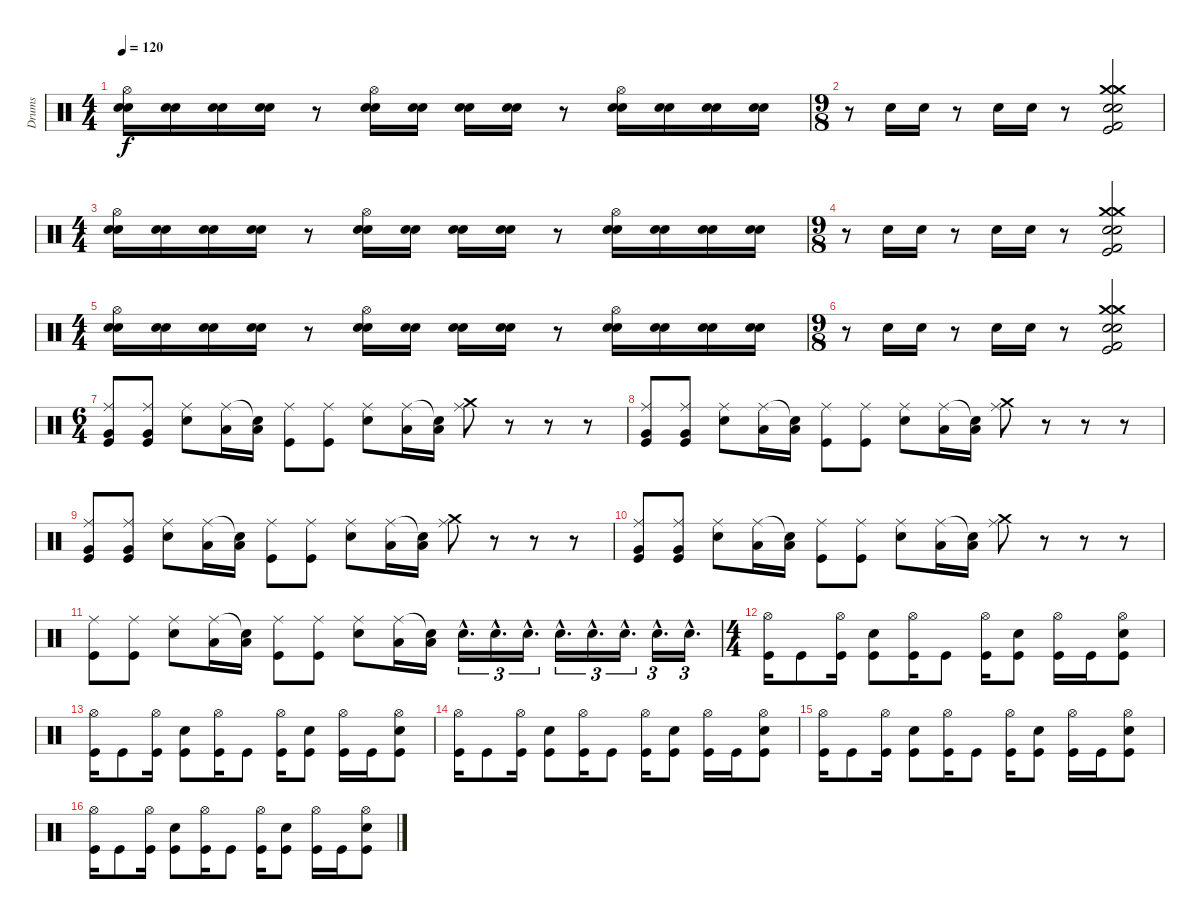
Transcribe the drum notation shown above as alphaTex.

\track ("Drums" "Drums") {instrument percussion}
\staff {score}
\articulation defaults
\ts (4 4)
\tempo 120
\clef neutral
\ks c
("Hi-Hat (open)" "Snare (hit) 2" "Electric Snare (hit)").16{dy f} ("Snare (hit) 2" "Electric Snare (hit)").16 ("Snare (hit) 2" "Electric Snare (hit)").16 ("Snare (hit) 2" "Electric Snare (hit)").16 r.8 ("Hi-Hat (open)" "Snare (hit) 2" "Electric Snare (hit)").16 ("Snare (hit) 2" "Electric Snare (hit)").16 ("Snare (hit) 2" "Electric Snare (hit)").16 ("Snare (hit) 2" "Electric Snare (hit)").16 r.8 ("Hi-Hat (open)" "Snare (hit) 2" "Electric Snare (hit)").16 ("Snare (hit) 2" "Electric Snare (hit)").16 ("Snare (hit) 2" "Electric Snare (hit)").16 ("Snare (hit) 2" "Electric Snare (hit)").16 |
\ts (9 8)
r.8 "Electric Snare (hit)".16 "Electric Snare (hit)".16 r.8 "Electric Snare (hit)".16 "Electric Snare (hit)".16 r.8 ("Crash medium (hit)" "Crash medium (hit)" "Kick (hit) 2" "Kick (hit)" "Snare (hit) 2" "Electric Snare (hit)").2 |
\ts (4 4)
("Hi-Hat (open)" "Snare (hit) 2" "Electric Snare (hit)").16 ("Snare (hit) 2" "Electric Snare (hit)").16 ("Snare (hit) 2" "Electric Snare (hit)").16 ("Snare (hit) 2" "Electric Snare (hit)").16 r.8 ("Hi-Hat (open)" "Snare (hit) 2" "Electric Snare (hit)").16 ("Snare (hit) 2" "Electric Snare (hit)").16 ("Snare (hit) 2" "Electric Snare (hit)").16 ("Snare (hit) 2" "Electric Snare (hit)").16 r.8 ("Hi-Hat (open)" "Snare (hit) 2" "Electric Snare (hit)").16 ("Snare (hit) 2" "Electric Snare (hit)").16 ("Snare (hit) 2" "Electric Snare (hit)").16 ("Snare (hit) 2" "Electric Snare (hit)").16 |
\ts (9 8)
r.8 "Electric Snare (hit)".16 "Electric Snare (hit)".16 r.8 "Electric Snare (hit)".16 "Electric Snare (hit)".16 r.8 ("Crash medium (hit)" "Crash medium (hit)" "Kick (hit) 2" "Kick (hit)" "Snare (hit) 2" "Electric Snare (hit)").2 |
\ts (4 4)
("Hi-Hat (open)" "Snare (hit) 2" "Electric Snare (hit)").16 ("Snare (hit) 2" "Electric Snare (hit)").16 ("Snare (hit) 2" "Electric Snare (hit)").16 ("Snare (hit) 2" "Electric Snare (hit)").16 r.8 ("Hi-Hat (open)" "Snare (hit) 2" "Electric Snare (hit)").16 ("Snare (hit) 2" "Electric Snare (hit)").16 ("Snare (hit) 2" "Electric Snare (hit)").16 ("Snare (hit) 2" "Electric Snare (hit)").16 r.8 ("Hi-Hat (open)" "Snare (hit) 2" "Electric Snare (hit)").16 ("Snare (hit) 2" "Electric Snare (hit)").16 ("Snare (hit) 2" "Electric Snare (hit)").16 ("Snare (hit) 2" "Electric Snare (hit)").16 |
\ts (9 8)
r.8 "Electric Snare (hit)".16 "Electric Snare (hit)".16 r.8 "Electric Snare (hit)".16 "Electric Snare (hit)".16 r.8 ("Crash medium (hit)" "Crash medium (hit)" "Kick (hit) 2" "Kick (hit)" "Snare (hit) 2" "Electric Snare (hit)").2 |
\ts (6 4)
("Ride (middle)" "Very Low Tom (hit)" "Kick (hit)").8 ("Ride (middle)" "Very Low Tom (hit)" "Kick (hit)").8 ("Ride (middle)" "Electric Snare (hit)").8 ("Ride (middle)" "Low Floor Tom (hit)").16 ("Snare (hit)"{t} "Low Floor Tom (hit)").16 ("Ride (middle)" "Kick (hit)").8 ("Ride (middle)" "Kick (hit)").8 ("Ride (middle)" "Electric Snare (hit)").8 ("Ride (middle)" "Low Floor Tom (hit)").16 ("Snare (hit)"{t} "Low Floor Tom (hit)").16 ("Ride (middle)" "Crash medium (hit)").8 r.8 r.8 r.8 |
("Ride (middle)" "Very Low Tom (hit)" "Kick (hit)").8 ("Ride (middle)" "Very Low Tom (hit)" "Kick (hit)").8 ("Ride (middle)" "Electric Snare (hit)").8 ("Ride (middle)" "Low Floor Tom (hit)").16 ("Snare (hit)"{t} "Low Floor Tom (hit)").16 ("Ride (middle)" "Kick (hit)").8 ("Ride (middle)" "Kick (hit)").8 ("Ride (middle)" "Electric Snare (hit)").8 ("Ride (middle)" "Low Floor Tom (hit)").16 ("Snare (hit)"{t} "Low Floor Tom (hit)").16 ("Ride (middle)" "Crash medium (hit)").8 r.8 r.8 r.8 |
("Ride (middle)" "Very Low Tom (hit)" "Kick (hit)").8 ("Ride (middle)" "Very Low Tom (hit)" "Kick (hit)").8 ("Ride (middle)" "Electric Snare (hit)").8 ("Ride (middle)" "Low Floor Tom (hit)").16 ("Snare (hit)"{t} "Low Floor Tom (hit)").16 ("Ride (middle)" "Kick (hit)").8 ("Ride (middle)" "Kick (hit)").8 ("Ride (middle)" "Electric Snare (hit)").8 ("Ride (middle)" "Low Floor Tom (hit)").16 ("Snare (hit)"{t} "Low Floor Tom (hit)").16 ("Ride (middle)" "Crash medium (hit)").8 r.8 r.8 r.8 |
("Ride (middle)" "Very Low Tom (hit)" "Kick (hit)").8 ("Ride (middle)" "Very Low Tom (hit)" "Kick (hit)").8 ("Ride (middle)" "Electric Snare (hit)").8 ("Ride (middle)" "Low Floor Tom (hit)").16 ("Snare (hit)"{t} "Low Floor Tom (hit)").16 ("Ride (middle)" "Kick (hit)").8 ("Ride (middle)" "Kick (hit)").8 ("Ride (middle)" "Electric Snare (hit)").8 ("Ride (middle)" "Low Floor Tom (hit)").16 ("Snare (hit)"{t} "Low Floor Tom (hit)").16 ("Ride (middle)" "Crash medium (hit)").8 r.8 r.8 r.8 |
("Ride (middle)" "Kick (hit)").8 ("Ride (middle)" "Kick (hit)").8 ("Ride (middle)" "Electric Snare (hit)").8 ("Ride (middle)" "Low Floor Tom (hit)").16 ("Snare (hit)"{t} "Low Floor Tom (hit)").16 ("Ride (middle)" "Kick (hit)").8 ("Ride (middle)" "Kick (hit)").8 ("Ride (middle)" "Electric Snare (hit)").8 ("Ride (middle)" "Low Floor Tom (hit)").16 ("Snare (hit)"{t} "Low Floor Tom (hit)").16 "Electric Snare (hit)"{hac}.16{d tu (3 2)} "Electric Snare (hit)"{hac}.16{d tu (3 2)} "Electric Snare (hit)"{hac}.16{d tu (3 2)} "Electric Snare (hit)"{hac}.16{d tu (3 2)} "Electric Snare (hit)"{hac}.16{d tu (3 2)} "Electric Snare (hit)"{hac}.16{d tu (3 2)} "Electric Snare (hit)"{hac}.16{d tu (3 2)} "Electric Snare (hit)"{hac}.16{d tu (3 2)} |
\ts (4 4)
("Hi-Hat (open)" "Kick (hit)").16 "Kick (hit)".8 ("Hi-Hat (open)" "Kick (hit)").16 ("Electric Snare (hit)" "Kick (hit)").8 ("Hi-Hat (open)" "Kick (hit)").16 "Kick (hit)".8 ("Hi-Hat (open)" "Kick (hit)").16 ("Electric Snare (hit)" "Kick (hit)").8 ("Hi-Hat (open)" "Kick (hit)").16 "Kick (hit)".16 ("Hi-Hat (open)" "Electric Snare (hit)" "Kick (hit)").8 |
("Hi-Hat (open)" "Kick (hit)").16 "Kick (hit)".8 ("Hi-Hat (open)" "Kick (hit)").16 ("Electric Snare (hit)" "Kick (hit)").8 ("Hi-Hat (open)" "Kick (hit)").16 "Kick (hit)".8 ("Hi-Hat (open)" "Kick (hit)").16 ("Electric Snare (hit)" "Kick (hit)").8 ("Hi-Hat (open)" "Kick (hit)").16 "Kick (hit)".16 ("Hi-Hat (open)" "Electric Snare (hit)" "Kick (hit)").8 |
("Hi-Hat (open)" "Kick (hit)").16 "Kick (hit)".8 ("Hi-Hat (open)" "Kick (hit)").16 ("Electric Snare (hit)" "Kick (hit)").8 ("Hi-Hat (open)" "Kick (hit)").16 "Kick (hit)".8 ("Hi-Hat (open)" "Kick (hit)").16 ("Electric Snare (hit)" "Kick (hit)").8 ("Hi-Hat (open)" "Kick (hit)").16 "Kick (hit)".16 ("Hi-Hat (open)" "Electric Snare (hit)" "Kick (hit)").8 |
("Hi-Hat (open)" "Kick (hit)").16 "Kick (hit)".8 ("Hi-Hat (open)" "Kick (hit)").16 ("Electric Snare (hit)" "Kick (hit)").8 ("Hi-Hat (open)" "Kick (hit)").16 "Kick (hit)".8 ("Hi-Hat (open)" "Kick (hit)").16 ("Electric Snare (hit)" "Kick (hit)").8 ("Hi-Hat (open)" "Kick (hit)").16 "Kick (hit)".16 ("Hi-Hat (open)" "Electric Snare (hit)" "Kick (hit)").8 |
("Hi-Hat (open)" "Kick (hit)").16 "Kick (hit)".8 ("Hi-Hat (open)" "Kick (hit)").16 ("Electric Snare (hit)" "Kick (hit)").8 ("Hi-Hat (open)" "Kick (hit)").16 "Kick (hit)".8 ("Hi-Hat (open)" "Kick (hit)").16 ("Electric Snare (hit)" "Kick (hit)").8 ("Hi-Hat (open)" "Kick (hit)").16 "Kick (hit)".16 ("Hi-Hat (open)" "Electric Snare (hit)" "Kick (hit)").8
